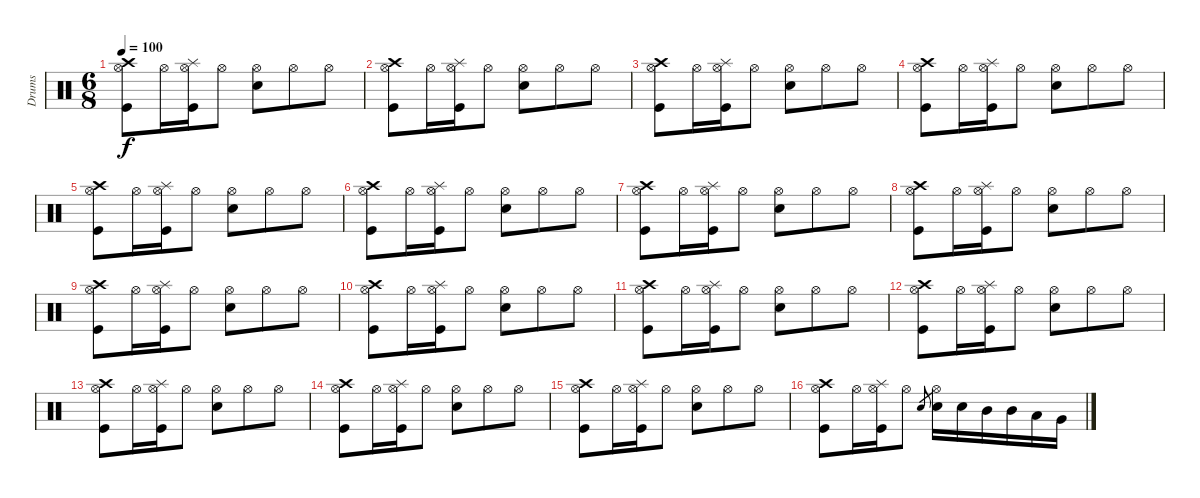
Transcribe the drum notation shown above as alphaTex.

\track ("Drums" "Drums") {instrument percussion}
\staff {score}
\articulation defaults
\ts (6 8)
\tempo 100
\clef neutral
\ks c
("Crash high (hit)" "Hi-Hat (open)" "Kick (hit)").8{dy f} "Hi-Hat (open)".16 ("Splash (hit)" "Hi-Hat (open)" "Kick (hit)").16 "Hi-Hat (open)".8 ("Hi-Hat (open)" "Electric Snare (hit)").8 "Hi-Hat (open)".8 "Hi-Hat (open)".8 |
("Crash high (hit)" "Hi-Hat (open)" "Kick (hit)").8 "Hi-Hat (open)".16 ("Splash (hit)" "Hi-Hat (open)" "Kick (hit)").16 "Hi-Hat (open)".8 ("Hi-Hat (open)" "Electric Snare (hit)").8 "Hi-Hat (open)".8 "Hi-Hat (open)".8 |
("Crash high (hit)" "Hi-Hat (open)" "Kick (hit)").8 "Hi-Hat (open)".16 ("Splash (hit)" "Hi-Hat (open)" "Kick (hit)").16 "Hi-Hat (open)".8 ("Hi-Hat (open)" "Electric Snare (hit)").8 "Hi-Hat (open)".8 "Hi-Hat (open)".8 |
("Crash high (hit)" "Hi-Hat (open)" "Kick (hit)").8 "Hi-Hat (open)".16 ("Splash (hit)" "Hi-Hat (open)" "Kick (hit)").16 "Hi-Hat (open)".8 ("Hi-Hat (open)" "Electric Snare (hit)").8 "Hi-Hat (open)".8 "Hi-Hat (open)".8 |
("Crash high (hit)" "Hi-Hat (open)" "Kick (hit)").8 "Hi-Hat (open)".16 ("Splash (hit)" "Hi-Hat (open)" "Kick (hit)").16 "Hi-Hat (open)".8 ("Hi-Hat (open)" "Electric Snare (hit)").8 "Hi-Hat (open)".8 "Hi-Hat (open)".8 |
("Crash high (hit)" "Hi-Hat (open)" "Kick (hit)").8 "Hi-Hat (open)".16 ("Splash (hit)" "Hi-Hat (open)" "Kick (hit)").16 "Hi-Hat (open)".8 ("Hi-Hat (open)" "Electric Snare (hit)").8 "Hi-Hat (open)".8 "Hi-Hat (open)".8 |
("Crash high (hit)" "Hi-Hat (open)" "Kick (hit)").8 "Hi-Hat (open)".16 ("Splash (hit)" "Hi-Hat (open)" "Kick (hit)").16 "Hi-Hat (open)".8 ("Hi-Hat (open)" "Electric Snare (hit)").8 "Hi-Hat (open)".8 "Hi-Hat (open)".8 |
("Crash high (hit)" "Hi-Hat (open)" "Kick (hit)").8 "Hi-Hat (open)".16 ("Splash (hit)" "Hi-Hat (open)" "Kick (hit)").16 "Hi-Hat (open)".8 ("Hi-Hat (open)" "Electric Snare (hit)").8 "Hi-Hat (open)".8 "Hi-Hat (open)".8 |
("Crash high (hit)" "Hi-Hat (open)" "Kick (hit)").8 "Hi-Hat (open)".16 ("Splash (hit)" "Hi-Hat (open)" "Kick (hit)").16 "Hi-Hat (open)".8 ("Hi-Hat (open)" "Electric Snare (hit)").8 "Hi-Hat (open)".8 "Hi-Hat (open)".8 |
("Crash high (hit)" "Hi-Hat (open)" "Kick (hit)").8 "Hi-Hat (open)".16 ("Splash (hit)" "Hi-Hat (open)" "Kick (hit)").16 "Hi-Hat (open)".8 ("Hi-Hat (open)" "Electric Snare (hit)").8 "Hi-Hat (open)".8 "Hi-Hat (open)".8 |
("Crash high (hit)" "Hi-Hat (open)" "Kick (hit)").8 "Hi-Hat (open)".16 ("Splash (hit)" "Hi-Hat (open)" "Kick (hit)").16 "Hi-Hat (open)".8 ("Hi-Hat (open)" "Electric Snare (hit)").8 "Hi-Hat (open)".8 "Hi-Hat (open)".8 |
("Crash high (hit)" "Hi-Hat (open)" "Kick (hit)").8 "Hi-Hat (open)".16 ("Splash (hit)" "Hi-Hat (open)" "Kick (hit)").16 "Hi-Hat (open)".8 ("Hi-Hat (open)" "Electric Snare (hit)").8 "Hi-Hat (open)".8 "Hi-Hat (open)".8 |
("Crash high (hit)" "Hi-Hat (open)" "Kick (hit)").8 "Hi-Hat (open)".16 ("Splash (hit)" "Hi-Hat (open)" "Kick (hit)").16 "Hi-Hat (open)".8 ("Hi-Hat (open)" "Electric Snare (hit)").8 "Hi-Hat (open)".8 "Hi-Hat (open)".8 |
("Crash high (hit)" "Hi-Hat (open)" "Kick (hit)").8 "Hi-Hat (open)".16 ("Splash (hit)" "Hi-Hat (open)" "Kick (hit)").16 "Hi-Hat (open)".8 ("Hi-Hat (open)" "Electric Snare (hit)").8 "Hi-Hat (open)".8 "Hi-Hat (open)".8 |
("Crash high (hit)" "Hi-Hat (open)" "Kick (hit)").8 "Hi-Hat (open)".16 ("Splash (hit)" "Hi-Hat (open)" "Kick (hit)").16 "Hi-Hat (open)".8 ("Hi-Hat (open)" "Electric Snare (hit)").8 "Hi-Hat (open)".8 "Hi-Hat (open)".8 |
("Crash high (hit)" "Hi-Hat (open)" "Kick (hit)").8 "Hi-Hat (open)".16 ("Splash (hit)" "Hi-Hat (open)" "Kick (hit)").16 "Hi-Hat (open)".8 "Electric Snare (hit)".8{gr} ("Hi-Hat (open)" "Electric Snare (hit)").16 "Electric Snare (hit)".16 "Mid Tom (hit)".16 "Mid Tom (hit)".16 "Low Tom (hit)".16 "Very Low Tom (hit)".16
